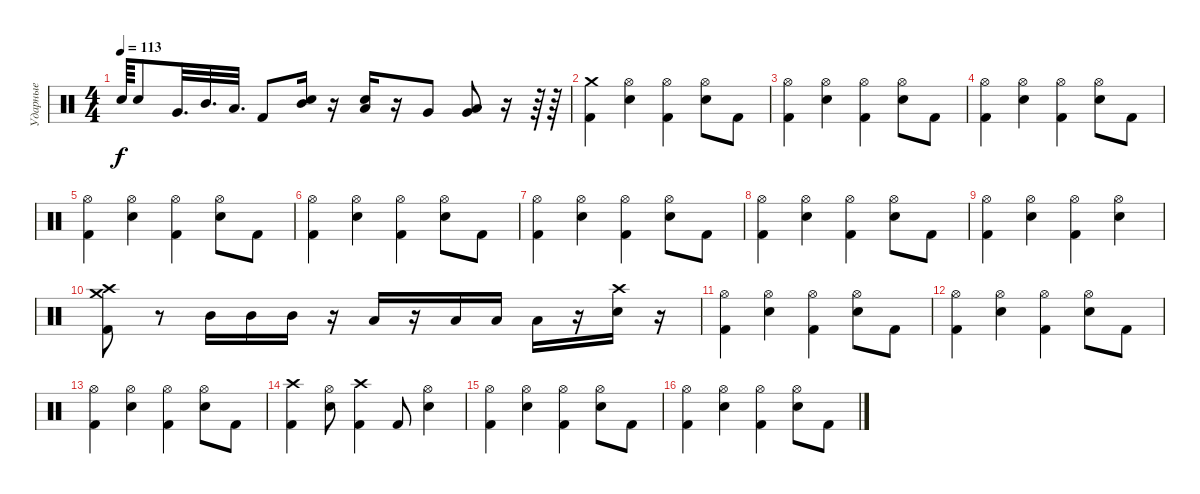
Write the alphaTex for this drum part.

\track ("Ударные" "Ударные") {instrument percussion}
\staff {score}
\articulation defaults
\ts (4 4)
\tempo 113
\clef neutral
\ks c "Electric Snare (hit)".64{dy f} "Electric Snare (hit)".8 "Very Low Tom (hit)".32{d} "Mid Tom (hit)".32{d} "Low Floor Tom (hit)".32{d} "Kick (hit) 2".8
("Electric Snare (hit)" "Mid Tom (hit)").16 r.16 ("Electric Snare (hit)" "Low Tom (hit)").16 r.16 "Very Low Tom (hit)".8 ("Low Tom (hit)" "Very Low Tom (hit)").8 r.16 r.64 r.64 |
("Kick (hit) 2" "Crash medium (hit)").4 ("Electric Snare (hit)" "Hi-Hat (open)").4 ("Kick (hit) 2" "Hi-Hat (open)").4 ("Electric Snare (hit)" "Hi-Hat (open)").8 "Kick (hit) 2".8 |
("Kick (hit) 2" "Hi-Hat (open)").4 ("Electric Snare (hit)" "Hi-Hat (open)").4 ("Kick (hit) 2" "Hi-Hat (open)").4 ("Electric Snare (hit)" "Hi-Hat (open)").8 "Kick (hit) 2".8 |
("Kick (hit) 2" "Hi-Hat (open)").4 ("Electric Snare (hit)" "Hi-Hat (open)").4 ("Kick (hit) 2" "Hi-Hat (open)").4 ("Electric Snare (hit)" "Hi-Hat (open)").8 "Kick (hit) 2".8 |
("Kick (hit) 2" "Hi-Hat (open)").4 ("Electric Snare (hit)" "Hi-Hat (open)").4 ("Kick (hit) 2" "Hi-Hat (open)").4 ("Electric Snare (hit)" "Hi-Hat (open)").8 "Kick (hit) 2".8 |
("Kick (hit) 2" "Hi-Hat (open)").4 ("Electric Snare (hit)" "Hi-Hat (open)").4 ("Kick (hit) 2" "Hi-Hat (open)").4 ("Electric Snare (hit)" "Hi-Hat (open)").8 "Kick (hit) 2".8 |
("Kick (hit) 2" "Hi-Hat (open)").4 ("Electric Snare (hit)" "Hi-Hat (open)").4 ("Kick (hit) 2" "Hi-Hat (open)").4 ("Electric Snare (hit)" "Hi-Hat (open)").8 "Kick (hit) 2".8 |
("Kick (hit) 2" "Hi-Hat (open)").4 ("Electric Snare (hit)" "Hi-Hat (open)").4 ("Kick (hit) 2" "Hi-Hat (open)").4 ("Electric Snare (hit)" "Hi-Hat (open)").8 "Kick (hit) 2".8 |
("Kick (hit) 2" "Hi-Hat (open)").4 ("Electric Snare (hit)" "Hi-Hat (open)").4 ("Kick (hit) 2" "Hi-Hat (open)").4 ("Electric Snare (hit)" "Hi-Hat (open)").4 |
("Kick (hit) 2" "Crash high (hit)" "Crash medium (hit)").8 r.8 "Mid Tom (hit)".16 "Mid Tom (hit)".16 "Mid Tom (hit)".16 r.16 "Low Tom (hit)".16 r.16 "Low Floor Tom (hit)".16 "Low Floor Tom (hit)".16 "Low Floor Tom (hit)".16 r.16 ("Electric Snare (hit)" "Crash high (hit)").16 r.16 |
("Kick (hit) 2" "Hi-Hat (open)").4 ("Electric Snare (hit)" "Hi-Hat (open)").4 ("Kick (hit) 2" "Hi-Hat (open)").4 ("Electric Snare (hit)" "Hi-Hat (open)").8 "Kick (hit) 2".8 |
("Kick (hit) 2" "Hi-Hat (open)").4 ("Electric Snare (hit)" "Hi-Hat (open)").4 ("Kick (hit) 2" "Hi-Hat (open)").4 ("Electric Snare (hit)" "Hi-Hat (open)").8 "Kick (hit) 2".8 |
("Kick (hit) 2" "Hi-Hat (open)").4 ("Electric Snare (hit)" "Hi-Hat (open)").4 ("Kick (hit) 2" "Hi-Hat (open)").4 ("Electric Snare (hit)" "Hi-Hat (open)").8 "Kick (hit) 2".8 |
("Kick (hit) 2" "Crash high (hit)").4 ("Electric Snare (hit)" "Hi-Hat (open)").8 ("Kick (hit) 2" "Crash high (hit)").4 "Kick (hit) 2".8 ("Electric Snare (hit)" "Hi-Hat (open)").4 |
("Kick (hit) 2" "Hi-Hat (open)").4 ("Electric Snare (hit)" "Hi-Hat (open)").4 ("Kick (hit) 2" "Hi-Hat (open)").4 ("Electric Snare (hit)" "Hi-Hat (open)").8 "Kick (hit) 2".8 |
("Kick (hit) 2" "Hi-Hat (open)").4 ("Electric Snare (hit)" "Hi-Hat (open)").4 ("Kick (hit) 2" "Hi-Hat (open)").4 ("Electric Snare (hit)" "Hi-Hat (open)").8 "Kick (hit) 2".8
